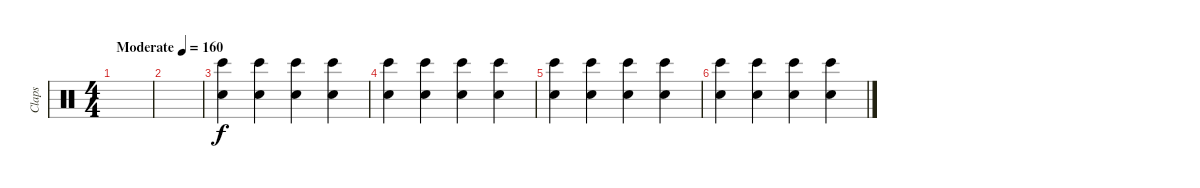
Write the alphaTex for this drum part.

\track ("Claps" "Claps") {instrument percussion}
\staff {score}
\articulation defaults
\ts (4 4)
\tempo (160 "Moderate")
\clef neutral
\ks c
|
|
("Hand Clap (hit)" "Bongo High (hit)").4 ("Hand Clap (hit)" "Bongo High (hit)").4 ("Hand Clap (hit)" "Bongo High (hit)").4 ("Hand Clap (hit)" "Bongo High (hit)").4 |
("Hand Clap (hit)" "Bongo High (hit)").4 ("Hand Clap (hit)" "Bongo High (hit)").4 ("Hand Clap (hit)" "Bongo High (hit)").4 ("Hand Clap (hit)" "Bongo High (hit)").4 |
("Hand Clap (hit)" "Bongo High (hit)").4 ("Hand Clap (hit)" "Bongo High (hit)").4 ("Hand Clap (hit)" "Bongo High (hit)").4 ("Hand Clap (hit)" "Bongo High (hit)").4 |
("Hand Clap (hit)" "Bongo High (hit)").4 ("Hand Clap (hit)" "Bongo High (hit)").4 ("Hand Clap (hit)" "Bongo High (hit)").4 ("Hand Clap (hit)" "Bongo High (hit)").4
